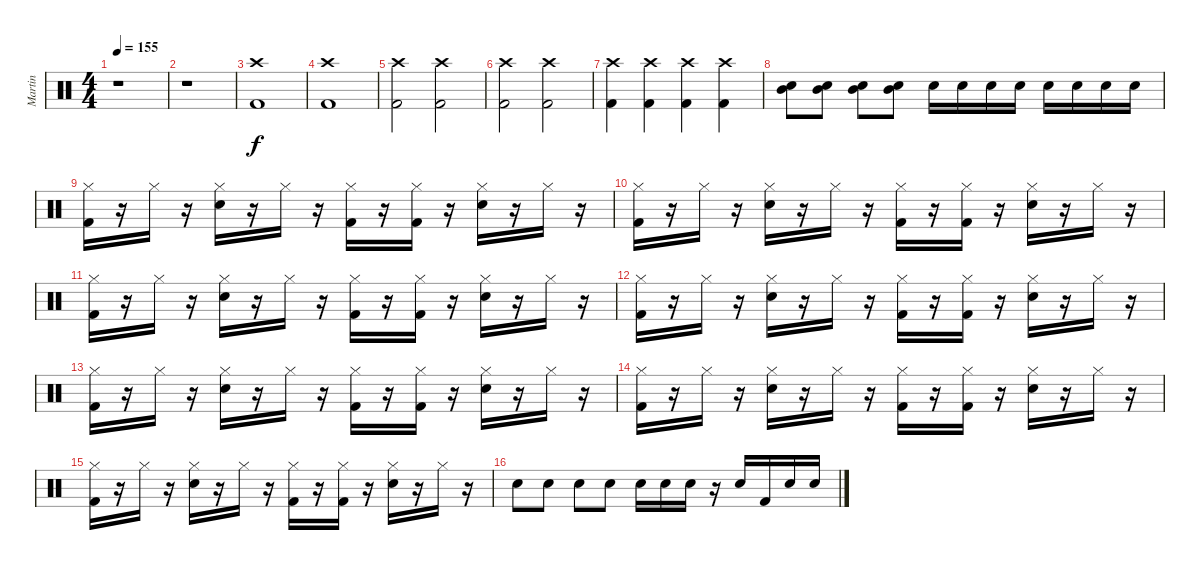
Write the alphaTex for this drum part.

\track ("Martin" "Martin") {instrument percussion}
\staff {score}
\articulation defaults
\ts (4 4)
\tempo 155
\clef neutral
\ks c
r.1{dy f} |
r.1 |
("Kick (hit) 2" "Crash high (hit)").1 |
("Kick (hit) 2" "Crash high (hit)").1 |
("Kick (hit) 2" "Crash high (hit)").2 ("Kick (hit) 2" "Crash high (hit)").2 |
("Kick (hit) 2" "Crash high (hit)").2 ("Kick (hit) 2" "Crash high (hit)").2 |
("Kick (hit) 2" "Crash high (hit)").4 ("Kick (hit) 2" "Crash high (hit)").4 ("Kick (hit) 2" "Crash high (hit)").4 ("Kick (hit) 2" "Crash high (hit)").4 |
("Electric Snare (hit)" "Mid Tom (hit)").8 ("Electric Snare (hit)" "Mid Tom (hit)").8 ("Electric Snare (hit)" "Mid Tom (hit)").8 ("Electric Snare (hit)" "Mid Tom (hit)").8 "Electric Snare (hit)".16 "Electric Snare (hit)".16 "Electric Snare (hit)".16 "Electric Snare (hit)".16 "Electric Snare (hit)".16 "Electric Snare (hit)".16 "Electric Snare (hit)".16 "Electric Snare (hit)".16 |
("Kick (hit) 2" "Hi-Hat (closed)").16 r.16 "Hi-Hat (closed)".16 r.16 ("Electric Snare (hit)" "Hi-Hat (closed)").16 r.16 "Hi-Hat (closed)".16 r.16 ("Kick (hit) 2" "Hi-Hat (closed)").16 r.16 ("Kick (hit) 2" "Hi-Hat (closed)").16 r.16 ("Electric Snare (hit)" "Hi-Hat (closed)").16 r.16 "Hi-Hat (closed)".16 r.16 |
("Kick (hit) 2" "Hi-Hat (closed)").16 r.16 "Hi-Hat (closed)".16 r.16 ("Electric Snare (hit)" "Hi-Hat (closed)").16 r.16 "Hi-Hat (closed)".16 r.16 ("Kick (hit) 2" "Hi-Hat (closed)").16 r.16 ("Kick (hit) 2" "Hi-Hat (closed)").16 r.16 ("Electric Snare (hit)" "Hi-Hat (closed)").16 r.16 "Hi-Hat (closed)".16 r.16 |
("Kick (hit) 2" "Hi-Hat (closed)").16 r.16 "Hi-Hat (closed)".16 r.16 ("Electric Snare (hit)" "Hi-Hat (closed)").16 r.16 "Hi-Hat (closed)".16 r.16 ("Kick (hit) 2" "Hi-Hat (closed)").16 r.16 ("Kick (hit) 2" "Hi-Hat (closed)").16 r.16 ("Electric Snare (hit)" "Hi-Hat (closed)").16 r.16 "Hi-Hat (closed)".16 r.16 |
("Kick (hit) 2" "Hi-Hat (closed)").16 r.16 "Hi-Hat (closed)".16 r.16 ("Electric Snare (hit)" "Hi-Hat (closed)").16 r.16 "Hi-Hat (closed)".16 r.16 ("Kick (hit) 2" "Hi-Hat (closed)").16 r.16 ("Kick (hit) 2" "Hi-Hat (closed)").16 r.16 ("Electric Snare (hit)" "Hi-Hat (closed)").16 r.16 "Hi-Hat (closed)".16 r.16 |
("Kick (hit) 2" "Hi-Hat (closed)").16 r.16 "Hi-Hat (closed)".16 r.16 ("Electric Snare (hit)" "Hi-Hat (closed)").16 r.16 "Hi-Hat (closed)".16 r.16 ("Kick (hit) 2" "Hi-Hat (closed)").16 r.16 ("Kick (hit) 2" "Hi-Hat (closed)").16 r.16 ("Electric Snare (hit)" "Hi-Hat (closed)").16 r.16 "Hi-Hat (closed)".16 r.16 |
("Kick (hit) 2" "Hi-Hat (closed)").16 r.16 "Hi-Hat (closed)".16 r.16 ("Electric Snare (hit)" "Hi-Hat (closed)").16 r.16 "Hi-Hat (closed)".16 r.16 ("Kick (hit) 2" "Hi-Hat (closed)").16 r.16 ("Kick (hit) 2" "Hi-Hat (closed)").16 r.16 ("Electric Snare (hit)" "Hi-Hat (closed)").16 r.16 "Hi-Hat (closed)".16 r.16 |
("Kick (hit) 2" "Hi-Hat (closed)").16 r.16 "Hi-Hat (closed)".16 r.16 ("Electric Snare (hit)" "Hi-Hat (closed)").16 r.16 "Hi-Hat (closed)".16 r.16 ("Kick (hit) 2" "Hi-Hat (closed)").16 r.16 ("Kick (hit) 2" "Hi-Hat (closed)").16 r.16 ("Electric Snare (hit)" "Hi-Hat (closed)").16 r.16 "Hi-Hat (closed)".16 r.16 |
"Electric Snare (hit)".8 "Electric Snare (hit)".8 "Electric Snare (hit)".8 "Electric Snare (hit)".8 "Electric Snare (hit)".16 "Electric Snare (hit)".16 "Electric Snare (hit)".16 r.16 "Electric Snare (hit)".16 "Kick (hit) 2".16 "Electric Snare (hit)".16 "Electric Snare (hit)".16
